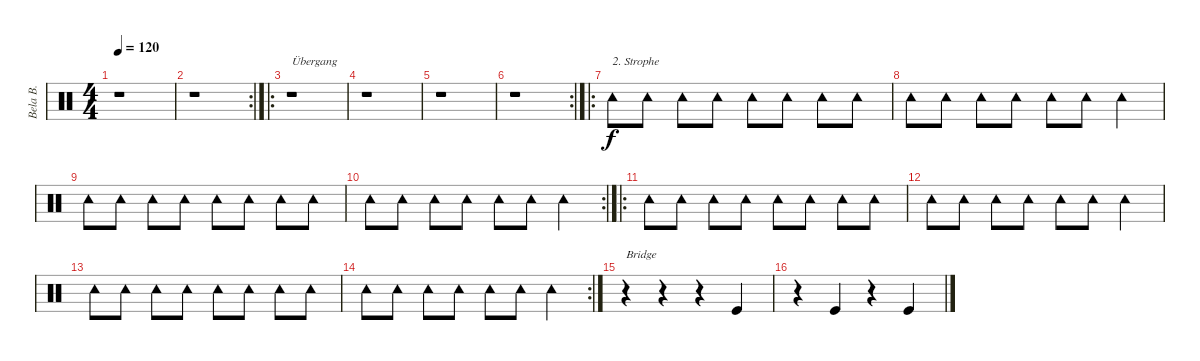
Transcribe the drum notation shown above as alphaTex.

\track ("Bela B." "Bela B.") {instrument percussion}
\staff {score}
\articulation defaults
\ts (4 4)
\tempo 120
\clef neutral
\ks c
r.1{dy f} |
\rc 2
r.1 |
\ro
r.1{txt "Übergang"} |
r.1 |
r.1 |
\rc 2
r.1 |
\ro "Tambourine (hit)".8{txt "2. Strophe"} "Tambourine (hit)".8 "Tambourine (hit)".8 "Tambourine (hit)".8 "Tambourine (hit)".8 "Tambourine (hit)".8 "Tambourine (hit)".8 "Tambourine (hit)".8
|
"Tambourine (hit)".8 "Tambourine (hit)".8 "Tambourine (hit)".8 "Tambourine (hit)".8 "Tambourine (hit)".8 "Tambourine (hit)".8 "Tambourine (hit)".4 |
"Tambourine (hit)".8 "Tambourine (hit)".8 "Tambourine (hit)".8 "Tambourine (hit)".8 "Tambourine (hit)".8 "Tambourine (hit)".8 "Tambourine (hit)".8 "Tambourine (hit)".8 |
\rc 2 "Tambourine (hit)".8 "Tambourine (hit)".8 "Tambourine (hit)".8 "Tambourine (hit)".8 "Tambourine (hit)".8 "Tambourine (hit)".8 "Tambourine (hit)".4
|
\ro "Tambourine (hit)".8 "Tambourine (hit)".8 "Tambourine (hit)".8 "Tambourine (hit)".8 "Tambourine (hit)".8 "Tambourine (hit)".8 "Tambourine (hit)".8 "Tambourine (hit)".8
|
"Tambourine (hit)".8 "Tambourine (hit)".8 "Tambourine (hit)".8 "Tambourine (hit)".8 "Tambourine (hit)".8 "Tambourine (hit)".8 "Tambourine (hit)".4 |
"Tambourine (hit)".8 "Tambourine (hit)".8 "Tambourine (hit)".8 "Tambourine (hit)".8 "Tambourine (hit)".8 "Tambourine (hit)".8 "Tambourine (hit)".8 "Tambourine (hit)".8 |
\rc 2 "Tambourine (hit)".8 "Tambourine (hit)".8 "Tambourine (hit)".8 "Tambourine (hit)".8 "Tambourine (hit)".8 "Tambourine (hit)".8 "Tambourine (hit)".4
|
r.4{txt "Bridge"} r.4 r.4 "Kick (hit)".4 |
r.4 "Kick (hit)".4 r.4 "Kick (hit)".4
